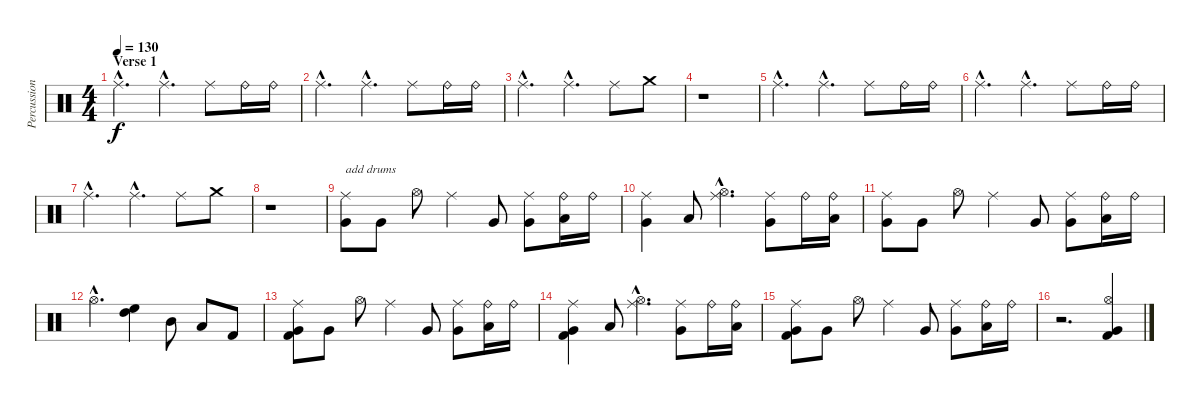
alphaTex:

\track ("Percussion" "Percussion") {instrument percussion}
\staff {score}
\articulation defaults
\ts (4 4)
\section ("" "Verse 1")
\tempo 130
\clef neutral
\ks c "Ride (middle)"{hac}.4{d dy f} "Ride (middle)"{hac}.4{d} "Ride (middle)".8 "Ride (bell)".16 "Ride (bell)".16
|
"Ride (middle)"{hac}.4{d} "Ride (middle)"{hac}.4{d} "Ride (middle)".8 "Ride (bell)".16 "Ride (bell)".16 |
"Ride (middle)"{hac}.4{d} "Ride (middle)"{hac}.4{d} "Ride (middle)".8 "Crash medium (hit)".8 |
r.1 |
"Ride (middle)"{hac}.4{d} "Ride (middle)"{hac}.4{d} "Ride (middle)".8 "Ride (bell)".16 "Ride (bell)".16 |
"Ride (middle)"{hac}.4{d} "Ride (middle)"{hac}.4{d} "Ride (middle)".8 "Ride (bell)".16 "Ride (bell)".16 |
"Ride (middle)"{hac}.4{d} "Ride (middle)"{hac}.4{d} "Ride (middle)".8 "Crash medium (hit)".8 |
r.1 |
("Ride (middle)" "Very Low Tom (hit)").8{txt "add drums"} "Very Low Tom (hit)".8 "Hi-Hat (open)".8 "Ride (middle)".4 "Very Low Tom (hit)".8 ("Ride (middle)" "Very Low Tom (hit)").8 ("Ride (bell)" "Low Floor Tom (hit)").16 "Ride (bell)".16 |
("Ride (middle)" "Very Low Tom (hit)").4 "Low Floor Tom (hit)".8 ("Ride (middle)"{hac} "Hi-Hat (open)"{hac}).4{d} ("Ride (middle)" "Very Low Tom (hit)").8 "Ride (bell)".16 ("Ride (bell)" "Low Tom (hit)").16 |
("Ride (middle)" "Very Low Tom (hit)").8 "Very Low Tom (hit)".8 "Hi-Hat (open)".8 "Ride (middle)".4 "Very Low Tom (hit)".8 ("Ride (middle)" "Very Low Tom (hit)").8 ("Ride (bell)" "Low Floor Tom (hit)").16 "Ride (bell)".16 |
"Hi-Hat (open)"{hac}.4{d} ("High Floor Tom (hit)" "High Tom (hit)").4 "Mid Tom (hit)".8 "Low Tom (hit)".8 "Kick (hit) 2".8 |
("Ride (middle)" "Very Low Tom (hit)" "Kick (hit) 2").8 "Very Low Tom (hit)".8 "Hi-Hat (open)".8 "Ride (middle)".4 "Very Low Tom (hit)".8 ("Ride (middle)" "Very Low Tom (hit)").8 ("Ride (bell)" "Low Floor Tom (hit)").16 "Ride (bell)".16 |
("Ride (middle)" "Very Low Tom (hit)" "Kick (hit) 2").4 "Low Floor Tom (hit)".8 ("Ride (middle)"{hac} "Hi-Hat (open)"{hac}).4{d} ("Ride (middle)" "Very Low Tom (hit)").8 "Ride (bell)".16 ("Ride (bell)" "Low Tom (hit)").16 |
("Ride (middle)" "Very Low Tom (hit)" "Kick (hit) 2").8 "Very Low Tom (hit)".8 "Hi-Hat (open)".8 "Ride (middle)".4 "Very Low Tom (hit)".8 ("Ride (middle)" "Very Low Tom (hit)").8 ("Ride (bell)" "Low Floor Tom (hit)").16 "Ride (bell)".16 |
r.2{d} ("Hi-Hat (open)" "Very Low Tom (hit)" "Kick (hit) 2").4
